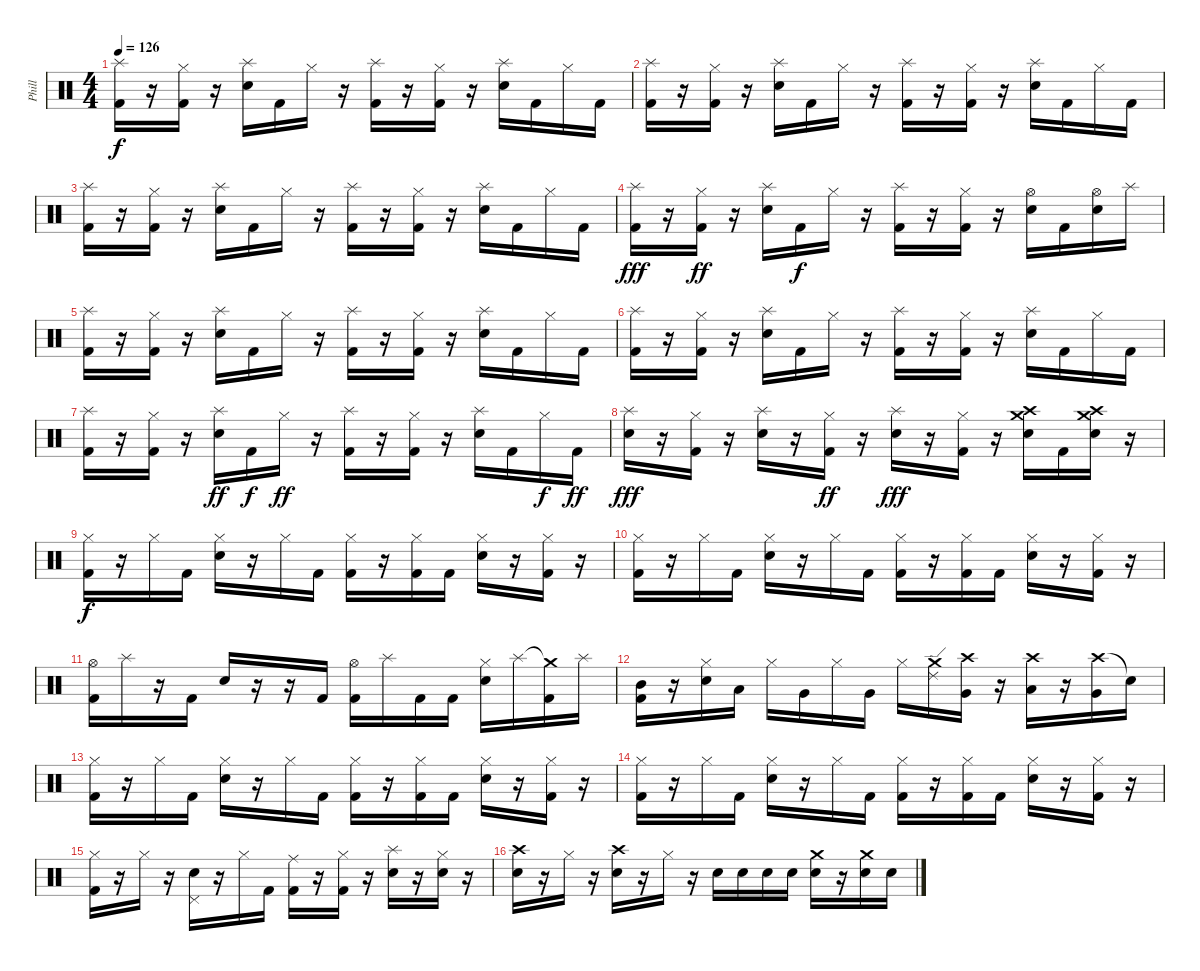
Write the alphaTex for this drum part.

\track ("Phill" "Phill") {instrument percussion}
\staff {score}
\articulation defaults
\ts (4 4)
\tempo 126
\clef neutral
\ks c
("Splash (hit)" "Kick (hit) 2").16{dy f volume 13} r.16 ("Hi-Hat (closed)" "Kick (hit) 2").16 r.16 ("Splash (hit)" "Electric Snare (hit)").16 "Kick (hit) 2".16 "Hi-Hat (closed)".16 r.16 ("Splash (hit)" "Kick (hit) 2").16 r.16 ("Hi-Hat (closed)" "Kick (hit) 2").16 r.16 ("Splash (hit)" "Electric Snare (hit)").16 "Kick (hit) 2".16 "Hi-Hat (closed)".16 "Kick (hit) 2".16 |
("Splash (hit)" "Kick (hit) 2").16 r.16 ("Hi-Hat (closed)" "Kick (hit) 2").16 r.16 ("Splash (hit)" "Electric Snare (hit)").16 "Kick (hit) 2".16 "Hi-Hat (closed)".16 r.16 ("Splash (hit)" "Kick (hit) 2").16 r.16 ("Hi-Hat (closed)" "Kick (hit) 2").16 r.16 ("Splash (hit)" "Electric Snare (hit)").16 "Kick (hit) 2".16 "Hi-Hat (closed)".16 "Kick (hit) 2".16 |
("Splash (hit)" "Kick (hit) 2").16 r.16 ("Hi-Hat (closed)" "Kick (hit) 2").16 r.16 ("Splash (hit)" "Electric Snare (hit)").16 "Kick (hit) 2".16 "Hi-Hat (closed)".16 r.16 ("Splash (hit)" "Kick (hit) 2").16 r.16 ("Hi-Hat (closed)" "Kick (hit) 2").16 r.16 ("Splash (hit)" "Electric Snare (hit)").16 "Kick (hit) 2".16 "Hi-Hat (closed)".16 "Kick (hit) 2".16 |
("Splash (hit)" "Kick (hit) 2").16{dy fff volume 14} r.16 ("Hi-Hat (closed)" "Kick (hit) 2").16{dy ff} r.16 ("Splash (hit)" "Electric Snare (hit)").16 "Kick (hit) 2".16{dy f} "Hi-Hat (closed)".16 r.16 ("Splash (hit)" "Kick (hit) 2").16 r.16 ("Hi-Hat (closed)" "Kick (hit) 2").16 r.16 ("Hi-Hat (open)" "Electric Snare (hit)").16 "Kick (hit) 2".16 ("Hi-Hat (open)" "Electric Snare (hit)").16 "Splash (hit)".16 |
("Splash (hit)" "Kick (hit) 2").16 r.16 ("Hi-Hat (closed)" "Kick (hit) 2").16 r.16 ("Splash (hit)" "Electric Snare (hit)").16 "Kick (hit) 2".16 "Hi-Hat (closed)".16 r.16 ("Splash (hit)" "Kick (hit) 2").16 r.16 ("Hi-Hat (closed)" "Kick (hit) 2").16 r.16 ("Splash (hit)" "Electric Snare (hit)").16 "Kick (hit) 2".16 "Hi-Hat (closed)".16 "Kick (hit) 2".16 |
("Splash (hit)" "Kick (hit) 2").16{volume 16} r.16 ("Hi-Hat (closed)" "Kick (hit) 2").16 r.16 ("Splash (hit)" "Electric Snare (hit)").16 "Kick (hit) 2".16 "Hi-Hat (closed)".16 r.16 ("Splash (hit)" "Kick (hit) 2").16 r.16 ("Hi-Hat (closed)" "Kick (hit) 2").16 r.16 ("Splash (hit)" "Electric Snare (hit)").16 "Kick (hit) 2".16 "Hi-Hat (closed)".16 "Kick (hit) 2".16 |
("Splash (hit)" "Kick (hit) 2").16 r.16 ("Hi-Hat (closed)" "Kick (hit) 2").16 r.16 ("Splash (hit)" "Electric Snare (hit)").16{dy ff} "Kick (hit) 2".16{dy f} "Hi-Hat (closed)".16{dy ff} r.16 ("Splash (hit)" "Kick (hit) 2").16 r.16 ("Hi-Hat (closed)" "Kick (hit) 2").16 r.16 ("Splash (hit)" "Electric Snare (hit)").16 "Kick (hit) 2".16 "Hi-Hat (closed)".16{dy f} "Kick (hit) 2".16{dy ff} |
("Splash (hit)" "Electric Snare (hit)").16{dy fff} r.16 ("Hi-Hat (closed)" "Kick (hit) 2").16 r.16 ("Splash (hit)" "Electric Snare (hit)").16 r.16 ("Hi-Hat (closed)" "Kick (hit) 2").16{dy ff} r.16 ("Splash (hit)" "Electric Snare (hit)").16{dy fff} r.16 ("Hi-Hat (closed)" "Kick (hit) 2").16 r.16 ("Crash medium (hit)" "Crash high (hit)" "Electric Snare (hit)").16 "Kick (hit) 2".16 ("Crash medium (hit)" "Crash high (hit)" "Electric Snare (hit)").16 r.16 |
("Hi-Hat (closed)" "Kick (hit) 2").16{dy f} r.16 "Hi-Hat (closed)".16 "Kick (hit) 2".16 ("Hi-Hat (closed)" "Electric Snare (hit)").16 r.16 "Hi-Hat (closed)".16 "Kick (hit) 2".16 ("Hi-Hat (closed)" "Kick (hit) 2").16 r.16 ("Hi-Hat (closed)" "Kick (hit) 2").16 "Kick (hit) 2".16 ("Hi-Hat (closed)" "Electric Snare (hit)").16 r.16 ("Hi-Hat (closed)" "Kick (hit) 2").16 r.16 |
("Hi-Hat (closed)" "Kick (hit) 2").16 r.16 "Hi-Hat (closed)".16 "Kick (hit) 2".16 ("Hi-Hat (closed)" "Electric Snare (hit)").16 r.16 "Hi-Hat (closed)".16 "Kick (hit) 2".16 ("Hi-Hat (closed)" "Kick (hit) 2").16 r.16 ("Hi-Hat (closed)" "Kick (hit) 2").16 "Kick (hit) 2".16 ("Hi-Hat (closed)" "Electric Snare (hit)").16 r.16 ("Hi-Hat (closed)" "Kick (hit) 2").16 r.16 |
("Hi-Hat (open)" "Kick (hit) 2").16 "Splash (hit)".16 r.16 "Kick (hit) 2".16 "Electric Snare (hit)".16 r.16 r.16 "Kick (hit) 2".16 ("Hi-Hat (open)" "Kick (hit) 2").16 "Splash (hit)".16 "Kick (hit) 2".16 "Kick (hit) 2".16 ("Hi-Hat (closed)" "Electric Snare (hit)").16 "Splash (hit)".16 ("Crash medium (hit)"{t} "Kick (hit) 2").16 "Splash (hit)".16 |
("Mid Tom (hit)" "Kick (hit) 2").16 r.16 ("Hi-Hat (closed)" "Electric Snare (hit)").16 "Low Tom (hit)".16 "Hi-Hat (closed)".16 "Very Low Tom (hit)".16 "Hi-Hat (closed)".16 "Very Low Tom (hit)".16 "Hi-Hat (closed)".16 ("Ride (edge) 2" "Crash medium (hit)").16 ("Crash high (hit)" "Very Low Tom (hit)").16 r.16 ("Crash high (hit)" "Low Tom (hit)").16 r.16 ("Crash high (hit)" "Very Low Tom (hit)").16 "Snare (hit)"{t}.16 |
("Hi-Hat (closed)" "Kick (hit) 2").16 r.16 "Hi-Hat (closed)".16 "Kick (hit) 2".16 ("Hi-Hat (closed)" "Electric Snare (hit)").16 r.16 "Hi-Hat (closed)".16 "Kick (hit) 2".16 ("Hi-Hat (closed)" "Kick (hit) 2").16 r.16 ("Hi-Hat (closed)" "Kick (hit) 2").16 "Kick (hit) 2".16 ("Hi-Hat (closed)" "Electric Snare (hit)").16 r.16 ("Hi-Hat (closed)" "Kick (hit) 2").16 r.16 |
("Hi-Hat (closed)" "Kick (hit) 2").16 r.16 "Hi-Hat (closed)".16 "Kick (hit) 2".16 ("Hi-Hat (closed)" "Electric Snare (hit)").16 r.16 "Hi-Hat (closed)".16 "Kick (hit) 2".16 ("Hi-Hat (closed)" "Kick (hit) 2").16 r.16 ("Hi-Hat (closed)" "Kick (hit) 2").16 "Kick (hit) 2".16 ("Hi-Hat (closed)" "Electric Snare (hit)").16 r.16 ("Hi-Hat (closed)" "Kick (hit) 2").16 r.16 |
("Hi-Hat (closed)" "Kick (hit) 2").16 r.16 "Hi-Hat (closed)".16 r.16 ("Pedal Hi-Hat (hit)" "Electric Snare (hit)").16 r.16 "Hi-Hat (closed)".16 "Kick (hit) 2".16 ("Ride (middle)" "Kick (hit) 2").16 r.16 ("Hi-Hat (closed)" "Kick (hit) 2").16 r.16 ("Splash (hit)" "Electric Snare (hit)").16 r.16 ("Hi-Hat (closed)" "Electric Snare (hit)").16 r.16 |
("Crash high (hit)" "Electric Snare (hit)").16 r.16 "Hi-Hat (closed)".16 r.16 ("Crash high (hit)" "Electric Snare (hit)").16 r.16 "Hi-Hat (closed)".16 r.16 "Electric Snare (hit)".16 "Electric Snare (hit)".16 "Electric Snare (hit)".16 "Electric Snare (hit)".16 ("Crash medium (hit)" "Electric Snare (hit)").16 r.16 ("Crash medium (hit)" "Electric Snare (hit)").16 "Electric Snare (hit)".16
